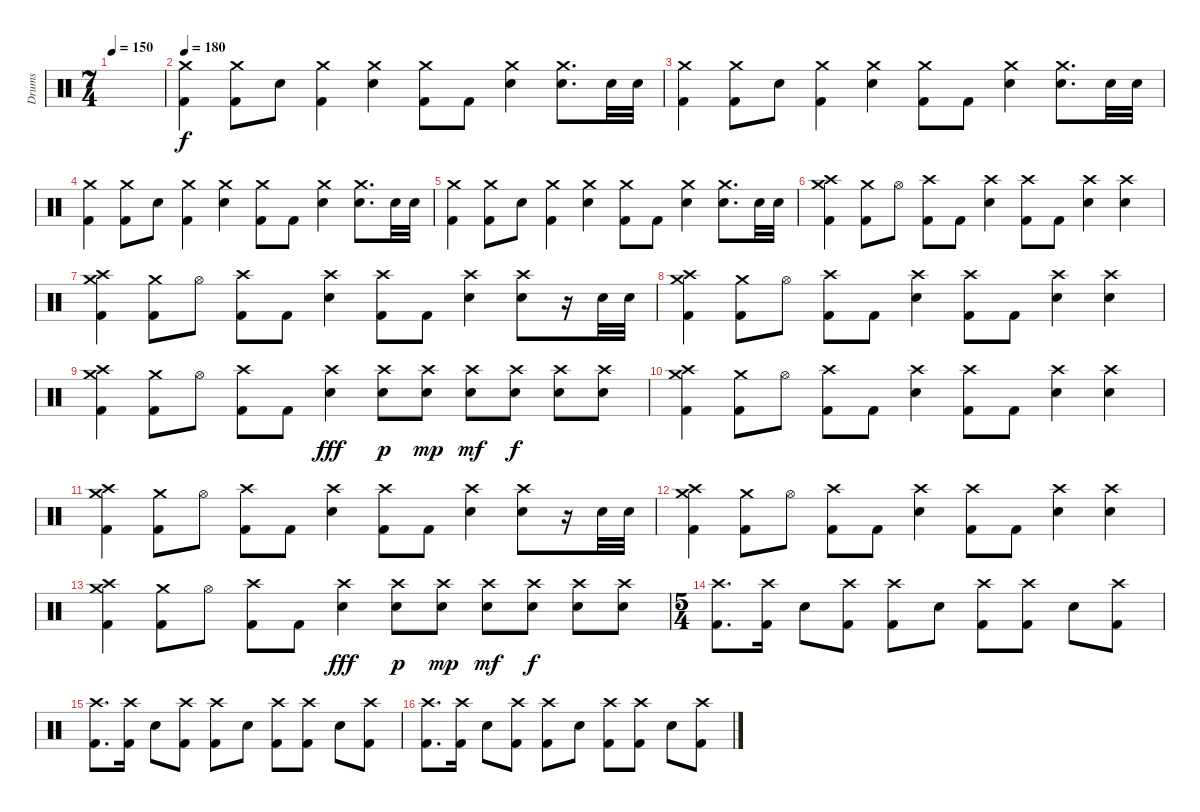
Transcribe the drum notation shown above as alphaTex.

\track ("Drums" "Drums") {instrument percussion}
\staff {score}
\articulation defaults
\ts (7 4)
\tempo 150
\clef neutral
\ks c
|
\tempo 180
("Crash medium (hit)" "Kick (hit) 2").4 ("Crash medium (hit)" "Kick (hit) 2").8 "Snare (hit) 2".8 ("Crash medium (hit)" "Kick (hit) 2").4 ("Crash medium (hit)" "Snare (hit) 2").4 ("Crash medium (hit)" "Kick (hit) 2").8 "Kick (hit) 2".8 ("Crash medium (hit)" "Snare (hit) 2").4 ("Crash medium (hit)" "Snare (hit) 2").8{d} "Snare (hit) 2".32 "Snare (hit) 2".32 |
("Crash medium (hit)" "Kick (hit) 2").4 ("Crash medium (hit)" "Kick (hit) 2").8 "Snare (hit) 2".8 ("Crash medium (hit)" "Kick (hit) 2").4 ("Crash medium (hit)" "Snare (hit) 2").4 ("Crash medium (hit)" "Kick (hit) 2").8 "Kick (hit) 2".8 ("Crash medium (hit)" "Snare (hit) 2").4 ("Crash medium (hit)" "Snare (hit) 2").8{d} "Snare (hit) 2".32 "Snare (hit) 2".32 |
("Crash medium (hit)" "Kick (hit) 2").4 ("Crash medium (hit)" "Kick (hit) 2").8 "Snare (hit) 2".8 ("Crash medium (hit)" "Kick (hit) 2").4 ("Crash medium (hit)" "Snare (hit) 2").4 ("Crash medium (hit)" "Kick (hit) 2").8 "Kick (hit) 2".8 ("Crash medium (hit)" "Snare (hit) 2").4 ("Crash medium (hit)" "Snare (hit) 2").8{d} "Snare (hit) 2".32 "Snare (hit) 2".32 |
("Crash medium (hit)" "Kick (hit) 2").4 ("Crash medium (hit)" "Kick (hit) 2").8 "Snare (hit) 2".8 ("Crash medium (hit)" "Kick (hit) 2").4 ("Crash medium (hit)" "Snare (hit) 2").4 ("Crash medium (hit)" "Kick (hit) 2").8 "Kick (hit) 2".8 ("Crash medium (hit)" "Snare (hit) 2").4 ("Crash medium (hit)" "Snare (hit) 2").8{d} "Snare (hit) 2".32 "Snare (hit) 2".32 |
("Crash medium (hit)" "Crash high (hit)" "Kick (hit) 2").4 ("Crash medium (hit)" "Kick (hit) 2").8 "Hi-Hat (open)".8 ("Crash high (hit)" "Kick (hit) 2").8 "Kick (hit) 2".8 ("Crash high (hit)" "Snare (hit) 2").4 ("Crash high (hit)" "Kick (hit) 2").8 "Kick (hit) 2".8 ("Crash high (hit)" "Snare (hit) 2").4 ("Crash high (hit)" "Snare (hit) 2").4 |
("Crash medium (hit)" "Crash high (hit)" "Kick (hit) 2").4 ("Crash medium (hit)" "Kick (hit) 2").8 "Hi-Hat (open)".8 ("Crash high (hit)" "Kick (hit) 2").8 "Kick (hit) 2".8 ("Crash high (hit)" "Snare (hit) 2").4 ("Crash high (hit)" "Kick (hit) 2").8 "Kick (hit) 2".8 ("Crash high (hit)" "Snare (hit) 2").4 ("Crash high (hit)" "Snare (hit) 2").8 r.16 "Snare (hit) 2".32 "Snare (hit) 2".32 |
("Crash medium (hit)" "Crash high (hit)" "Kick (hit) 2").4 ("Crash medium (hit)" "Kick (hit) 2").8 "Hi-Hat (open)".8 ("Crash high (hit)" "Kick (hit) 2").8 "Kick (hit) 2".8 ("Crash high (hit)" "Snare (hit) 2").4 ("Crash high (hit)" "Kick (hit) 2").8 "Kick (hit) 2".8 ("Crash high (hit)" "Snare (hit) 2").4 ("Crash high (hit)" "Snare (hit) 2").4 |
("Crash medium (hit)" "Crash high (hit)" "Kick (hit) 2").4 ("Crash medium (hit)" "Kick (hit) 2").8 "Hi-Hat (open)".8 ("Crash high (hit)" "Kick (hit) 2").8 "Kick (hit) 2".8 ("Crash high (hit)" "Snare (hit) 2").4{dy fff} ("Crash high (hit)" "Snare (hit) 2").8{dy p} ("Crash high (hit)" "Snare (hit) 2").8{dy mp} ("Crash high (hit)" "Snare (hit) 2").8{dy mf} ("Crash high (hit)" "Snare (hit) 2").8{dy f} ("Crash high (hit)" "Snare (hit) 2").8 ("Crash high (hit)" "Snare (hit) 2").8 |
("Crash medium (hit)" "Crash high (hit)" "Kick (hit) 2").4 ("Crash medium (hit)" "Kick (hit) 2").8 "Hi-Hat (open)".8 ("Crash high (hit)" "Kick (hit) 2").8 "Kick (hit) 2".8 ("Crash high (hit)" "Snare (hit) 2").4 ("Crash high (hit)" "Kick (hit) 2").8 "Kick (hit) 2".8 ("Crash high (hit)" "Snare (hit) 2").4 ("Crash high (hit)" "Snare (hit) 2").4 |
("Crash medium (hit)" "Crash high (hit)" "Kick (hit) 2").4 ("Crash medium (hit)" "Kick (hit) 2").8 "Hi-Hat (open)".8 ("Crash high (hit)" "Kick (hit) 2").8 "Kick (hit) 2".8 ("Crash high (hit)" "Snare (hit) 2").4 ("Crash high (hit)" "Kick (hit) 2").8 "Kick (hit) 2".8 ("Crash high (hit)" "Snare (hit) 2").4 ("Crash high (hit)" "Snare (hit) 2").8 r.16 "Snare (hit) 2".32 "Snare (hit) 2".32 |
("Crash medium (hit)" "Crash high (hit)" "Kick (hit) 2").4 ("Crash medium (hit)" "Kick (hit) 2").8 "Hi-Hat (open)".8 ("Crash high (hit)" "Kick (hit) 2").8 "Kick (hit) 2".8 ("Crash high (hit)" "Snare (hit) 2").4 ("Crash high (hit)" "Kick (hit) 2").8 "Kick (hit) 2".8 ("Crash high (hit)" "Snare (hit) 2").4 ("Crash high (hit)" "Snare (hit) 2").4 |
("Crash medium (hit)" "Crash high (hit)" "Kick (hit) 2").4 ("Crash medium (hit)" "Kick (hit) 2").8 "Hi-Hat (open)".8 ("Crash high (hit)" "Kick (hit) 2").8 "Kick (hit) 2".8 ("Crash high (hit)" "Snare (hit) 2").4{dy fff} ("Crash high (hit)" "Snare (hit) 2").8{dy p} ("Crash high (hit)" "Snare (hit) 2").8{dy mp} ("Crash high (hit)" "Snare (hit) 2").8{dy mf} ("Crash high (hit)" "Snare (hit) 2").8{dy f} ("Crash high (hit)" "Snare (hit) 2").8 ("Crash high (hit)" "Snare (hit) 2").8 |
\ts (5 4)
("Crash high (hit)" "Kick (hit) 2").8{d} ("Crash high (hit)" "Kick (hit) 2").16 "Snare (hit) 2".8 ("Crash high (hit)" "Kick (hit) 2").8 ("Crash high (hit)" "Kick (hit) 2").8 "Snare (hit) 2".8 ("Crash high (hit)" "Kick (hit) 2").8 ("Crash high (hit)" "Kick (hit) 2").8 "Snare (hit) 2".8 ("Crash high (hit)" "Kick (hit) 2").8 |
("Crash high (hit)" "Kick (hit) 2").8{d} ("Crash high (hit)" "Kick (hit) 2").16 "Snare (hit) 2".8 ("Crash high (hit)" "Kick (hit) 2").8 ("Crash high (hit)" "Kick (hit) 2").8 "Snare (hit) 2".8 ("Crash high (hit)" "Kick (hit) 2").8 ("Crash high (hit)" "Kick (hit) 2").8 "Snare (hit) 2".8 ("Crash high (hit)" "Kick (hit) 2").8 |
("Crash high (hit)" "Kick (hit) 2").8{d} ("Crash high (hit)" "Kick (hit) 2").16 "Snare (hit) 2".8 ("Crash high (hit)" "Kick (hit) 2").8 ("Crash high (hit)" "Kick (hit) 2").8 "Snare (hit) 2".8 ("Crash high (hit)" "Kick (hit) 2").8 ("Crash high (hit)" "Kick (hit) 2").8 "Snare (hit) 2".8 ("Crash high (hit)" "Kick (hit) 2").8
